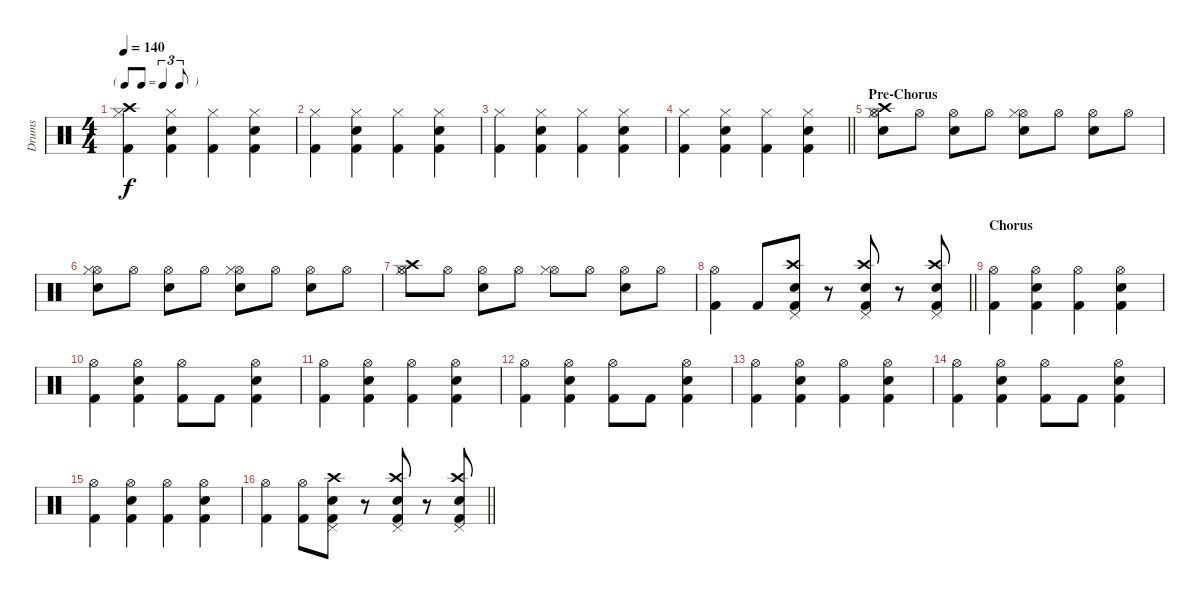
\track ("Drums" "Drums") {instrument percussion}
\staff {score}
\articulation defaults
\ts (4 4)
\tf triplet8th
\tempo 140
\clef neutral
\ks c
("Hi-Hat (closed)" "Kick (hit) 2" "Crash high (hit)").4{dy f} ("Hi-Hat (closed)" "Kick (hit) 2" "Snare (hit) 2").4 ("Hi-Hat (closed)" "Kick (hit) 2").4 ("Hi-Hat (closed)" "Kick (hit) 2" "Snare (hit) 2").4 |
("Hi-Hat (closed)" "Kick (hit) 2").4 ("Hi-Hat (closed)" "Kick (hit) 2" "Snare (hit) 2").4 ("Hi-Hat (closed)" "Kick (hit) 2").4 ("Hi-Hat (closed)" "Kick (hit) 2" "Snare (hit) 2").4 |
("Hi-Hat (closed)" "Kick (hit) 2").4 ("Hi-Hat (closed)" "Kick (hit) 2" "Snare (hit) 2").4 ("Hi-Hat (closed)" "Kick (hit) 2").4 ("Hi-Hat (closed)" "Kick (hit) 2" "Snare (hit) 2").4 |
\barLineRight lightlight
("Hi-Hat (closed)" "Kick (hit) 2").4 ("Hi-Hat (closed)" "Kick (hit) 2" "Snare (hit) 2").4 ("Hi-Hat (closed)" "Kick (hit) 2").4 ("Hi-Hat (closed)" "Kick (hit) 2" "Snare (hit) 2").4 |
\section ("" "Pre-Chorus")
("Hi-Hat (open)" "Snare (hit) 2" "Hi-Hat (closed)" "Crash high (hit)").8 "Hi-Hat (open)".8 ("Hi-Hat (open)" "Snare (hit) 2").8 "Hi-Hat (open)".8 ("Hi-Hat (open)" "Snare (hit) 2" "Hi-Hat (closed)").8 "Hi-Hat (open)".8 ("Hi-Hat (open)" "Snare (hit) 2").8 "Hi-Hat (open)".8 |
("Hi-Hat (open)" "Snare (hit) 2" "Hi-Hat (closed)").8 "Hi-Hat (open)".8 ("Hi-Hat (open)" "Snare (hit) 2").8 "Hi-Hat (open)".8 ("Hi-Hat (open)" "Snare (hit) 2" "Hi-Hat (closed)").8 "Hi-Hat (open)".8 ("Hi-Hat (open)" "Snare (hit) 2").8 "Hi-Hat (open)".8 |
("Hi-Hat (open)" "Hi-Hat (closed)" "Crash high (hit)").8 "Hi-Hat (open)".8 ("Hi-Hat (open)" "Snare (hit) 2").8 "Hi-Hat (open)".8 ("Hi-Hat (open)" "Hi-Hat (closed)").8 "Hi-Hat (open)".8 ("Hi-Hat (open)" "Snare (hit) 2").8 "Hi-Hat (open)".8 |
\barLineRight lightlight
("Hi-Hat (open)" "Kick (hit) 2").4 "Kick (hit) 2".8 ("Pedal Hi-Hat (hit)" "Kick (hit) 2" "Snare (hit) 2" "Crash high (hit)").8 r.8 ("Pedal Hi-Hat (hit)" "Kick (hit) 2" "Snare (hit) 2" "Crash high (hit)").8 r.8 ("Pedal Hi-Hat (hit)" "Kick (hit) 2" "Snare (hit) 2" "Crash high (hit)").8 |
\section ("" "Chorus")
("Hi-Hat (open)" "Kick (hit) 2").4 ("Hi-Hat (open)" "Kick (hit) 2" "Snare (hit) 2").4 ("Hi-Hat (open)" "Kick (hit) 2").4 ("Hi-Hat (open)" "Kick (hit) 2" "Snare (hit) 2").4 |
("Hi-Hat (open)" "Kick (hit) 2").4 ("Hi-Hat (open)" "Kick (hit) 2" "Snare (hit) 2").4 ("Hi-Hat (open)" "Kick (hit) 2").8 "Kick (hit) 2".8 ("Hi-Hat (open)" "Kick (hit) 2" "Snare (hit) 2").4 |
("Hi-Hat (open)" "Kick (hit) 2").4 ("Hi-Hat (open)" "Kick (hit) 2" "Snare (hit) 2").4 ("Hi-Hat (open)" "Kick (hit) 2").4 ("Hi-Hat (open)" "Kick (hit) 2" "Snare (hit) 2").4 |
("Hi-Hat (open)" "Kick (hit) 2").4 ("Hi-Hat (open)" "Kick (hit) 2" "Snare (hit) 2").4 ("Hi-Hat (open)" "Kick (hit) 2").8 "Kick (hit) 2".8 ("Hi-Hat (open)" "Kick (hit) 2" "Snare (hit) 2").4 |
("Hi-Hat (open)" "Kick (hit) 2").4 ("Hi-Hat (open)" "Kick (hit) 2" "Snare (hit) 2").4 ("Hi-Hat (open)" "Kick (hit) 2").4 ("Hi-Hat (open)" "Kick (hit) 2" "Snare (hit) 2").4 |
("Hi-Hat (open)" "Kick (hit) 2").4 ("Hi-Hat (open)" "Kick (hit) 2" "Snare (hit) 2").4 ("Hi-Hat (open)" "Kick (hit) 2").8 "Kick (hit) 2".8 ("Hi-Hat (open)" "Kick (hit) 2" "Snare (hit) 2").4 |
("Hi-Hat (open)" "Kick (hit) 2").4 ("Hi-Hat (open)" "Kick (hit) 2" "Snare (hit) 2").4 ("Hi-Hat (open)" "Kick (hit) 2").4 ("Hi-Hat (open)" "Kick (hit) 2" "Snare (hit) 2").4 |
\barLineRight lightlight
("Hi-Hat (open)" "Kick (hit) 2").4 ("Hi-Hat (open)" "Kick (hit) 2").8 ("Pedal Hi-Hat (hit)" "Kick (hit) 2" "Snare (hit) 2" "Crash high (hit)").8 r.8 ("Pedal Hi-Hat (hit)" "Kick (hit) 2" "Snare (hit) 2" "Crash high (hit)").8 r.8 ("Pedal Hi-Hat (hit)" "Kick (hit) 2" "Snare (hit) 2" "Crash high (hit)").8
